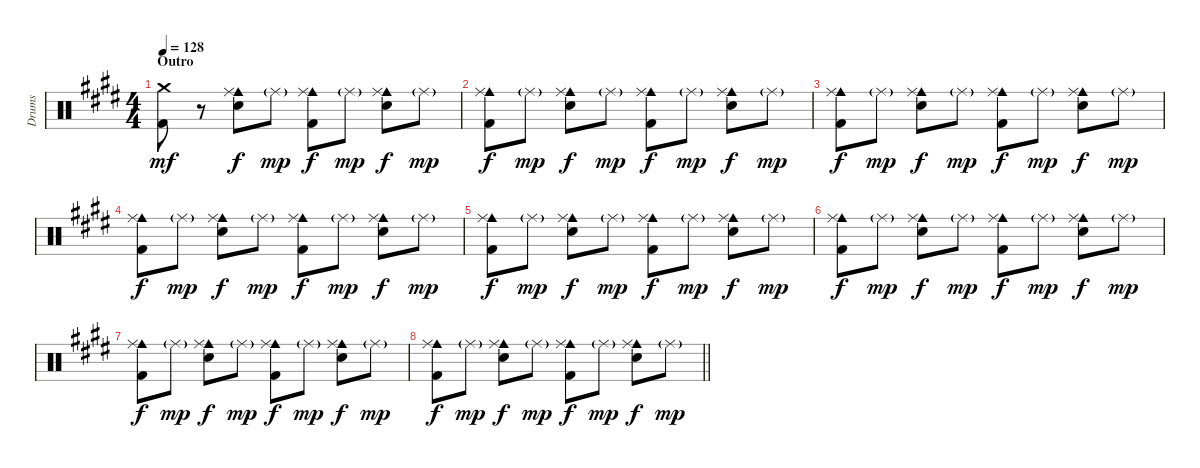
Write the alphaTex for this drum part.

\track ("Drums" "Drums") {instrument percussion}
\staff {score}
\articulation defaults
\ts (4 4)
\section ("" "Outro")
\tempo 128
\clef neutral
\ks c#minor
("Crash medium (hit)" "Kick (hit) 2").8{dy mf volume 9} r.8 ("Cowbell medium (hit)" "Ride (middle)" "Snare (hit) 2").8{dy f} "Ride (middle)"{g}.8{dy mp} ("Cowbell medium (hit)" "Ride (middle)" "Kick (hit) 2").8{dy f} "Ride (middle)"{g}.8{dy mp} ("Cowbell medium (hit)" "Ride (middle)" "Snare (hit) 2").8{dy f} "Ride (middle)"{g}.8{dy mp} |
\ks e
("Cowbell medium (hit)" "Ride (middle)" "Kick (hit) 2").8{dy f} "Ride (middle)"{g}.8{dy mp} ("Cowbell medium (hit)" "Ride (middle)" "Snare (hit) 2").8{dy f} "Ride (middle)"{g}.8{dy mp} ("Cowbell medium (hit)" "Ride (middle)" "Kick (hit) 2").8{dy f} "Ride (middle)"{g}.8{dy mp} ("Cowbell medium (hit)" "Ride (middle)" "Snare (hit) 2").8{dy f} "Ride (middle)"{g}.8{dy mp} |
\ks c#minor
("Cowbell medium (hit)" "Ride (middle)" "Kick (hit) 2").8{dy f} "Ride (middle)"{g}.8{dy mp} ("Cowbell medium (hit)" "Ride (middle)" "Snare (hit) 2").8{dy f} "Ride (middle)"{g}.8{dy mp} ("Cowbell medium (hit)" "Ride (middle)" "Kick (hit) 2").8{dy f} "Ride (middle)"{g}.8{dy mp} ("Cowbell medium (hit)" "Ride (middle)" "Snare (hit) 2").8{dy f} "Ride (middle)"{g}.8{dy mp} |
("Cowbell medium (hit)" "Ride (middle)" "Kick (hit) 2").8{dy f} "Ride (middle)"{g}.8{dy mp} ("Cowbell medium (hit)" "Ride (middle)" "Snare (hit) 2").8{dy f} "Ride (middle)"{g}.8{dy mp} ("Cowbell medium (hit)" "Ride (middle)" "Kick (hit) 2").8{dy f} "Ride (middle)"{g}.8{dy mp} ("Cowbell medium (hit)" "Ride (middle)" "Snare (hit) 2").8{dy f} "Ride (middle)"{g}.8{dy mp} |
\ks e
("Cowbell medium (hit)" "Ride (middle)" "Kick (hit) 2").8{dy f volume 0} "Ride (middle)"{g}.8{dy mp} ("Cowbell medium (hit)" "Ride (middle)" "Snare (hit) 2").8{dy f} "Ride (middle)"{g}.8{dy mp} ("Cowbell medium (hit)" "Ride (middle)" "Kick (hit) 2").8{dy f} "Ride (middle)"{g}.8{dy mp} ("Cowbell medium (hit)" "Ride (middle)" "Snare (hit) 2").8{dy f} "Ride (middle)"{g}.8{dy mp} |
\ks c#minor
("Cowbell medium (hit)" "Ride (middle)" "Kick (hit) 2").8{dy f} "Ride (middle)"{g}.8{dy mp} ("Cowbell medium (hit)" "Ride (middle)" "Snare (hit) 2").8{dy f} "Ride (middle)"{g}.8{dy mp} ("Cowbell medium (hit)" "Ride (middle)" "Kick (hit) 2").8{dy f} "Ride (middle)"{g}.8{dy mp} ("Cowbell medium (hit)" "Ride (middle)" "Snare (hit) 2").8{dy f} "Ride (middle)"{g}.8{dy mp} |
("Cowbell medium (hit)" "Ride (middle)" "Kick (hit) 2").8{dy f} "Ride (middle)"{g}.8{dy mp} ("Cowbell medium (hit)" "Ride (middle)" "Snare (hit) 2").8{dy f} "Ride (middle)"{g}.8{dy mp} ("Cowbell medium (hit)" "Ride (middle)" "Kick (hit) 2").8{dy f} "Ride (middle)"{g}.8{dy mp} ("Cowbell medium (hit)" "Ride (middle)" "Snare (hit) 2").8{dy f} "Ride (middle)"{g}.8{dy mp} |
\barLineRight lightlight
("Cowbell medium (hit)" "Ride (middle)" "Kick (hit) 2").8{dy f} "Ride (middle)"{g}.8{dy mp} ("Cowbell medium (hit)" "Ride (middle)" "Snare (hit) 2").8{dy f} "Ride (middle)"{g}.8{dy mp} ("Cowbell medium (hit)" "Ride (middle)" "Kick (hit) 2").8{dy f} "Ride (middle)"{g}.8{dy mp} ("Cowbell medium (hit)" "Ride (middle)" "Snare (hit) 2").8{dy f} "Ride (middle)"{g}.8{dy mp}
